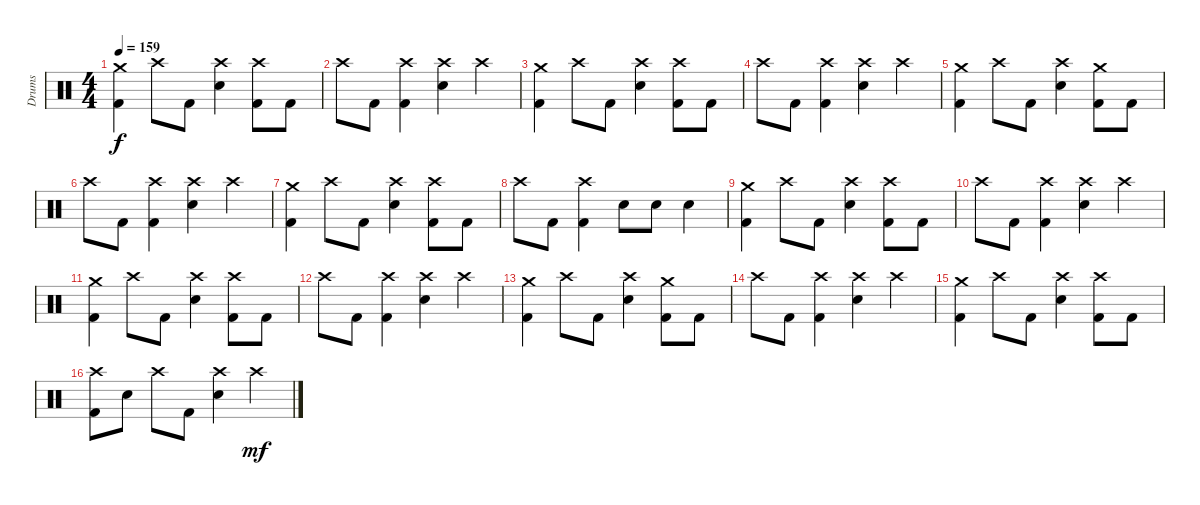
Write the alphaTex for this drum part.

\track ("Drums" "Drums") {instrument percussion}
\staff {score}
\articulation defaults
\ts (4 4)
\tempo 159
\clef neutral
\ks c
("Crash medium (hit)" "Kick (hit) 2").4{dy f} "Crash high (hit)".8 "Kick (hit) 2".8 ("Crash high (hit)" "Electric Snare (hit)").4 ("Crash high (hit)" "Kick (hit) 2").8 "Kick (hit) 2".8 |
"Crash high (hit)".8 "Kick (hit) 2".8 ("Crash high (hit)" "Kick (hit) 2").4 ("Crash high (hit)" "Electric Snare (hit)").4 "Crash high (hit)".4 |
("Crash medium (hit)" "Kick (hit) 2").4 "Crash high (hit)".8 "Kick (hit) 2".8 ("Crash high (hit)" "Electric Snare (hit)").4 ("Crash high (hit)" "Kick (hit) 2").8 "Kick (hit) 2".8 |
"Crash high (hit)".8 "Kick (hit) 2".8 ("Crash high (hit)" "Kick (hit) 2").4 ("Crash high (hit)" "Electric Snare (hit)").4 "Crash high (hit)".4 |
("Crash medium (hit)" "Kick (hit) 2").4 "Crash high (hit)".8 "Kick (hit) 2".8 ("Crash high (hit)" "Electric Snare (hit)").4 ("Crash medium (hit)" "Kick (hit) 2").8 "Kick (hit) 2".8 |
"Crash high (hit)".8 "Kick (hit) 2".8 ("Crash high (hit)" "Kick (hit) 2").4 ("Crash high (hit)" "Electric Snare (hit)").4 "Crash high (hit)".4 |
("Crash medium (hit)" "Kick (hit) 2").4 "Crash high (hit)".8 "Kick (hit) 2".8 ("Crash high (hit)" "Electric Snare (hit)").4 ("Crash high (hit)" "Kick (hit) 2").8 "Kick (hit) 2".8 |
"Crash high (hit)".8 "Kick (hit) 2".8 ("Crash high (hit)" "Kick (hit) 2").4 "Electric Snare (hit)".8 "Electric Snare (hit)".8 "Electric Snare (hit)".4 |
("Crash medium (hit)" "Kick (hit) 2").4 "Crash high (hit)".8 "Kick (hit) 2".8 ("Crash high (hit)" "Electric Snare (hit)").4 ("Crash high (hit)" "Kick (hit) 2").8 "Kick (hit) 2".8 |
"Crash high (hit)".8 "Kick (hit) 2".8 ("Crash high (hit)" "Kick (hit) 2").4 ("Crash high (hit)" "Electric Snare (hit)").4 "Crash high (hit)".4 |
("Crash medium (hit)" "Kick (hit) 2").4 "Crash high (hit)".8 "Kick (hit) 2".8 ("Crash high (hit)" "Electric Snare (hit)").4 ("Crash high (hit)" "Kick (hit) 2").8 "Kick (hit) 2".8 |
"Crash high (hit)".8 "Kick (hit) 2".8 ("Crash high (hit)" "Kick (hit) 2").4 ("Crash high (hit)" "Electric Snare (hit)").4 "Crash high (hit)".4 |
("Crash medium (hit)" "Kick (hit) 2").4 "Crash high (hit)".8 "Kick (hit) 2".8 ("Crash high (hit)" "Electric Snare (hit)").4 ("Crash medium (hit)" "Kick (hit) 2").8 "Kick (hit) 2".8 |
"Crash high (hit)".8 "Kick (hit) 2".8 ("Crash high (hit)" "Kick (hit) 2").4 ("Crash high (hit)" "Electric Snare (hit)").4 "Crash high (hit)".4 |
("Crash medium (hit)" "Kick (hit) 2").4 "Crash high (hit)".8 "Kick (hit) 2".8 ("Crash high (hit)" "Electric Snare (hit)").4 ("Crash high (hit)" "Kick (hit) 2").8 "Kick (hit) 2".8 |
("Crash high (hit)" "Kick (hit) 2").8 "Electric Snare (hit)".8 "Crash high (hit)".8 "Kick (hit) 2".8 ("Crash high (hit)" "Electric Snare (hit)").4 "Crash high (hit)".4{dy mf}
